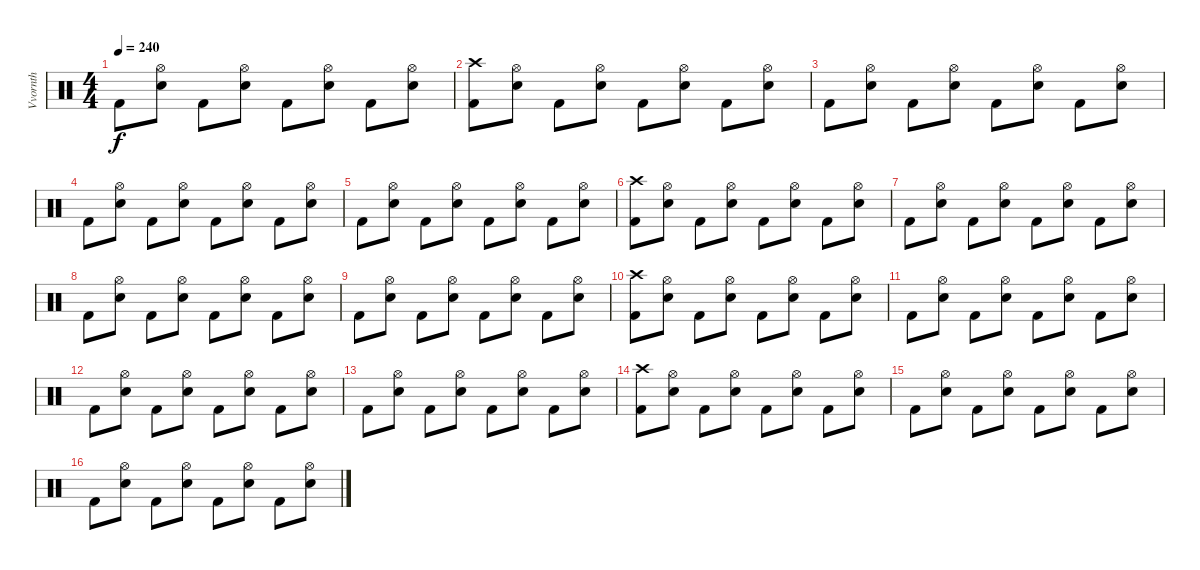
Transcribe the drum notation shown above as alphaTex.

\track ("Vvornth" "Vvornth") {instrument percussion}
\staff {score}
\articulation defaults
\ts (4 4)
\tempo 240
\clef neutral
\ks c "Kick (hit) 2".8{dy f}
("Hi-Hat (open)" "Snare (hit) 2").8 "Kick (hit) 2".8 ("Hi-Hat (open)" "Snare (hit) 2").8 "Kick (hit) 2".8 ("Hi-Hat (open)" "Snare (hit) 2").8 "Kick (hit) 2".8 ("Hi-Hat (open)" "Snare (hit) 2").8 |
("Crash high (hit)" "Kick (hit) 2").8 ("Hi-Hat (open)" "Snare (hit) 2").8 "Kick (hit) 2".8 ("Hi-Hat (open)" "Snare (hit) 2").8 "Kick (hit) 2".8 ("Hi-Hat (open)" "Snare (hit) 2").8 "Kick (hit) 2".8 ("Hi-Hat (open)" "Snare (hit) 2").8 |
"Kick (hit) 2".8 ("Hi-Hat (open)" "Snare (hit) 2").8 "Kick (hit) 2".8 ("Hi-Hat (open)" "Snare (hit) 2").8 "Kick (hit) 2".8 ("Hi-Hat (open)" "Snare (hit) 2").8 "Kick (hit) 2".8 ("Hi-Hat (open)" "Snare (hit) 2").8 |
"Kick (hit) 2".8 ("Hi-Hat (open)" "Snare (hit) 2").8 "Kick (hit) 2".8 ("Hi-Hat (open)" "Snare (hit) 2").8 "Kick (hit) 2".8 ("Hi-Hat (open)" "Snare (hit) 2").8 "Kick (hit) 2".8 ("Hi-Hat (open)" "Snare (hit) 2").8 |
"Kick (hit) 2".8 ("Hi-Hat (open)" "Snare (hit) 2").8 "Kick (hit) 2".8 ("Hi-Hat (open)" "Snare (hit) 2").8 "Kick (hit) 2".8 ("Hi-Hat (open)" "Snare (hit) 2").8 "Kick (hit) 2".8 ("Hi-Hat (open)" "Snare (hit) 2").8 |
("Crash high (hit)" "Kick (hit) 2").8 ("Hi-Hat (open)" "Snare (hit) 2").8 "Kick (hit) 2".8 ("Hi-Hat (open)" "Snare (hit) 2").8 "Kick (hit) 2".8 ("Hi-Hat (open)" "Snare (hit) 2").8 "Kick (hit) 2".8 ("Hi-Hat (open)" "Snare (hit) 2").8 |
"Kick (hit) 2".8 ("Hi-Hat (open)" "Snare (hit) 2").8 "Kick (hit) 2".8 ("Hi-Hat (open)" "Snare (hit) 2").8 "Kick (hit) 2".8 ("Hi-Hat (open)" "Snare (hit) 2").8 "Kick (hit) 2".8 ("Hi-Hat (open)" "Snare (hit) 2").8 |
"Kick (hit) 2".8 ("Hi-Hat (open)" "Snare (hit) 2").8 "Kick (hit) 2".8 ("Hi-Hat (open)" "Snare (hit) 2").8 "Kick (hit) 2".8 ("Hi-Hat (open)" "Snare (hit) 2").8 "Kick (hit) 2".8 ("Hi-Hat (open)" "Snare (hit) 2").8 |
"Kick (hit) 2".8 ("Hi-Hat (open)" "Snare (hit) 2").8 "Kick (hit) 2".8 ("Hi-Hat (open)" "Snare (hit) 2").8 "Kick (hit) 2".8 ("Hi-Hat (open)" "Snare (hit) 2").8 "Kick (hit) 2".8 ("Hi-Hat (open)" "Snare (hit) 2").8 |
("Crash high (hit)" "Kick (hit) 2").8 ("Hi-Hat (open)" "Snare (hit) 2").8 "Kick (hit) 2".8 ("Hi-Hat (open)" "Snare (hit) 2").8 "Kick (hit) 2".8 ("Hi-Hat (open)" "Snare (hit) 2").8 "Kick (hit) 2".8 ("Hi-Hat (open)" "Snare (hit) 2").8 |
"Kick (hit) 2".8 ("Hi-Hat (open)" "Snare (hit) 2").8 "Kick (hit) 2".8 ("Hi-Hat (open)" "Snare (hit) 2").8 "Kick (hit) 2".8 ("Hi-Hat (open)" "Snare (hit) 2").8 "Kick (hit) 2".8 ("Hi-Hat (open)" "Snare (hit) 2").8 |
"Kick (hit) 2".8 ("Hi-Hat (open)" "Snare (hit) 2").8 "Kick (hit) 2".8 ("Hi-Hat (open)" "Snare (hit) 2").8 "Kick (hit) 2".8 ("Hi-Hat (open)" "Snare (hit) 2").8 "Kick (hit) 2".8 ("Hi-Hat (open)" "Snare (hit) 2").8 |
"Kick (hit) 2".8 ("Hi-Hat (open)" "Snare (hit) 2").8 "Kick (hit) 2".8 ("Hi-Hat (open)" "Snare (hit) 2").8 "Kick (hit) 2".8 ("Hi-Hat (open)" "Snare (hit) 2").8 "Kick (hit) 2".8 ("Hi-Hat (open)" "Snare (hit) 2").8 |
("Crash high (hit)" "Kick (hit) 2").8 ("Hi-Hat (open)" "Snare (hit) 2").8 "Kick (hit) 2".8 ("Hi-Hat (open)" "Snare (hit) 2").8 "Kick (hit) 2".8 ("Hi-Hat (open)" "Snare (hit) 2").8 "Kick (hit) 2".8 ("Hi-Hat (open)" "Snare (hit) 2").8 |
"Kick (hit) 2".8 ("Hi-Hat (open)" "Snare (hit) 2").8 "Kick (hit) 2".8 ("Hi-Hat (open)" "Snare (hit) 2").8 "Kick (hit) 2".8 ("Hi-Hat (open)" "Snare (hit) 2").8 "Kick (hit) 2".8 ("Hi-Hat (open)" "Snare (hit) 2").8 |
"Kick (hit) 2".8 ("Hi-Hat (open)" "Snare (hit) 2").8 "Kick (hit) 2".8 ("Hi-Hat (open)" "Snare (hit) 2").8 "Kick (hit) 2".8 ("Hi-Hat (open)" "Snare (hit) 2").8 "Kick (hit) 2".8 ("Hi-Hat (open)" "Snare (hit) 2").8
